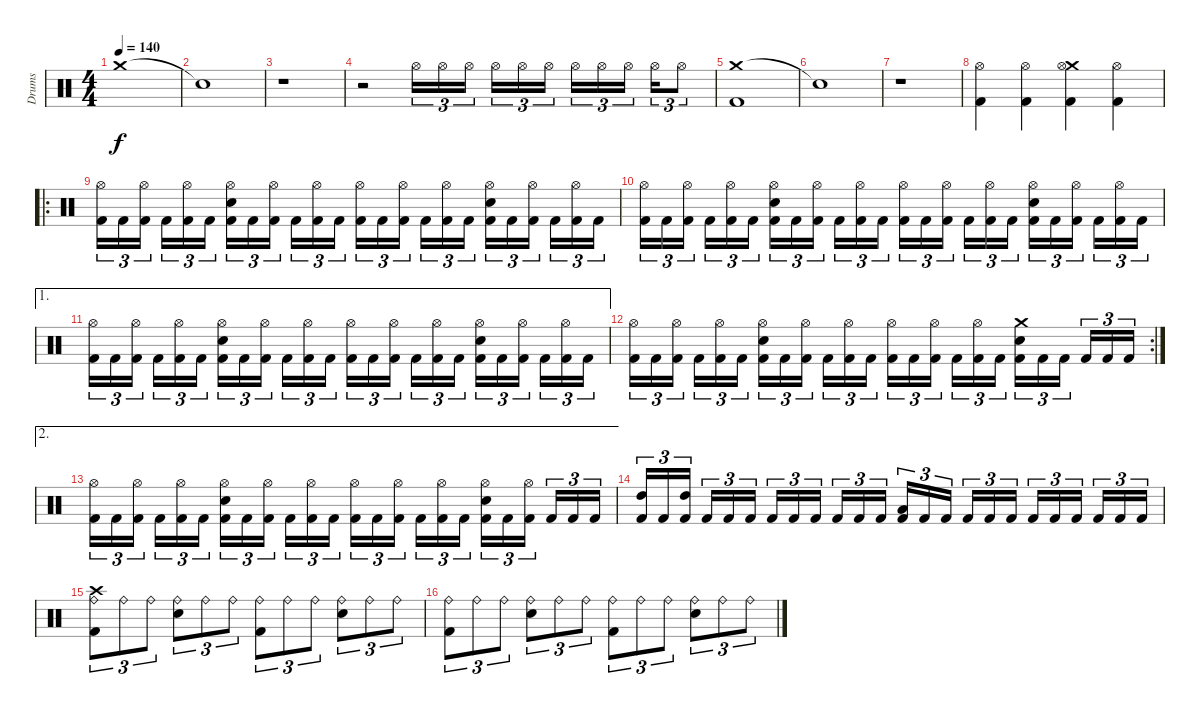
\track ("Drums" "Drums") {instrument percussion}
\staff {score}
\articulation defaults
\ts (4 4)
\tempo 140
\clef neutral
\ks c "Crash medium (hit)".1{dy f}
|
"Snare (hit)"{t}.1 |
r.1 |
r.2 "Hi-Hat (open)".16{tu (3 2)} "Hi-Hat (open)".16{tu (3 2)} "Hi-Hat (open)".16{tu (3 2)} "Hi-Hat (open)".16{tu (3 2)} "Hi-Hat (open)".16{tu (3 2)} "Hi-Hat (open)".16{tu (3 2)} "Hi-Hat (open)".16{tu (3 2)} "Hi-Hat (open)".16{tu (3 2)} "Hi-Hat (open)".16{tu (3 2)} "Hi-Hat (open)".16{tu (3 2)} "Hi-Hat (open)".8{tu (3 2)} |
("Crash medium (hit)" "Kick (hit) 2").1 |
"Snare (hit)"{t}.1 |
r.1 |
("Hi-Hat (open)" "Kick (hit) 2").4 ("Hi-Hat (open)" "Kick (hit) 2").4 ("Crash medium (hit)" "Hi-Hat (open)" "Kick (hit) 2").4 ("Hi-Hat (open)" "Kick (hit) 2").4 |
\ro
("Hi-Hat (open)" "Kick (hit) 2").16{tu (3 2)} "Kick (hit) 2".16{tu (3 2)} ("Hi-Hat (open)" "Kick (hit) 2").16{tu (3 2)} "Kick (hit) 2".16{tu (3 2)} ("Hi-Hat (open)" "Kick (hit) 2").16{tu (3 2)} "Kick (hit) 2".16{tu (3 2)} ("Hi-Hat (open)" "Electric Snare (hit)" "Kick (hit) 2").16{tu (3 2)} "Kick (hit) 2".16{tu (3 2)} ("Hi-Hat (open)" "Kick (hit) 2").16{tu (3 2)} "Kick (hit) 2".16{tu (3 2)} ("Hi-Hat (open)" "Kick (hit) 2").16{tu (3 2)} "Kick (hit) 2".16{tu (3 2)} ("Hi-Hat (open)" "Kick (hit) 2").16{tu (3 2)} "Kick (hit) 2".16{tu (3 2)} ("Hi-Hat (open)" "Kick (hit) 2").16{tu (3 2)} "Kick (hit) 2".16{tu (3 2)} ("Hi-Hat (open)" "Kick (hit) 2").16{tu (3 2)} "Kick (hit) 2".16{tu (3 2)} ("Hi-Hat (open)" "Electric Snare (hit)" "Kick (hit) 2").16{tu (3 2)} "Kick (hit) 2".16{tu (3 2)} ("Hi-Hat (open)" "Kick (hit) 2").16{tu (3 2)} "Kick (hit) 2".16{tu (3 2)} ("Hi-Hat (open)" "Kick (hit) 2").16{tu (3 2)} "Kick (hit) 2".16{tu (3 2)} |
("Hi-Hat (open)" "Kick (hit) 2").16{tu (3 2)} "Kick (hit) 2".16{tu (3 2)} ("Hi-Hat (open)" "Kick (hit) 2").16{tu (3 2)} "Kick (hit) 2".16{tu (3 2)} ("Hi-Hat (open)" "Kick (hit) 2").16{tu (3 2)} "Kick (hit) 2".16{tu (3 2)} ("Hi-Hat (open)" "Electric Snare (hit)" "Kick (hit) 2").16{tu (3 2)} "Kick (hit) 2".16{tu (3 2)} ("Hi-Hat (open)" "Kick (hit) 2").16{tu (3 2)} "Kick (hit) 2".16{tu (3 2)} ("Hi-Hat (open)" "Kick (hit) 2").16{tu (3 2)} "Kick (hit) 2".16{tu (3 2)} ("Hi-Hat (open)" "Kick (hit) 2").16{tu (3 2)} "Kick (hit) 2".16{tu (3 2)} ("Hi-Hat (open)" "Kick (hit) 2").16{tu (3 2)} "Kick (hit) 2".16{tu (3 2)} ("Hi-Hat (open)" "Kick (hit) 2").16{tu (3 2)} "Kick (hit) 2".16{tu (3 2)} ("Hi-Hat (open)" "Electric Snare (hit)" "Kick (hit) 2").16{tu (3 2)} "Kick (hit) 2".16{tu (3 2)} ("Hi-Hat (open)" "Kick (hit) 2").16{tu (3 2)} "Kick (hit) 2".16{tu (3 2)} ("Hi-Hat (open)" "Kick (hit) 2").16{tu (3 2)} "Kick (hit) 2".16{tu (3 2)} |
\ae 1
("Hi-Hat (open)" "Kick (hit) 2").16{tu (3 2)} "Kick (hit) 2".16{tu (3 2)} ("Hi-Hat (open)" "Kick (hit) 2").16{tu (3 2)} "Kick (hit) 2".16{tu (3 2)} ("Hi-Hat (open)" "Kick (hit) 2").16{tu (3 2)} "Kick (hit) 2".16{tu (3 2)} ("Hi-Hat (open)" "Electric Snare (hit)" "Kick (hit) 2").16{tu (3 2)} "Kick (hit) 2".16{tu (3 2)} ("Hi-Hat (open)" "Kick (hit) 2").16{tu (3 2)} "Kick (hit) 2".16{tu (3 2)} ("Hi-Hat (open)" "Kick (hit) 2").16{tu (3 2)} "Kick (hit) 2".16{tu (3 2)} ("Hi-Hat (open)" "Kick (hit) 2").16{tu (3 2)} "Kick (hit) 2".16{tu (3 2)} ("Hi-Hat (open)" "Kick (hit) 2").16{tu (3 2)} "Kick (hit) 2".16{tu (3 2)} ("Hi-Hat (open)" "Kick (hit) 2").16{tu (3 2)} "Kick (hit) 2".16{tu (3 2)} ("Hi-Hat (open)" "Electric Snare (hit)" "Kick (hit) 2").16{tu (3 2)} "Kick (hit) 2".16{tu (3 2)} ("Hi-Hat (open)" "Kick (hit) 2").16{tu (3 2)} "Kick (hit) 2".16{tu (3 2)} ("Hi-Hat (open)" "Kick (hit) 2").16{tu (3 2)} "Kick (hit) 2".16{tu (3 2)} |
\rc 2
("Hi-Hat (open)" "Kick (hit) 2").16{tu (3 2)} "Kick (hit) 2".16{tu (3 2)} ("Hi-Hat (open)" "Kick (hit) 2").16{tu (3 2)} "Kick (hit) 2".16{tu (3 2)} ("Hi-Hat (open)" "Kick (hit) 2").16{tu (3 2)} "Kick (hit) 2".16{tu (3 2)} ("Hi-Hat (open)" "Electric Snare (hit)" "Kick (hit) 2").16{tu (3 2)} "Kick (hit) 2".16{tu (3 2)} ("Hi-Hat (open)" "Kick (hit) 2").16{tu (3 2)} "Kick (hit) 2".16{tu (3 2)} ("Hi-Hat (open)" "Kick (hit) 2").16{tu (3 2)} "Kick (hit) 2".16{tu (3 2)} ("Hi-Hat (open)" "Kick (hit) 2").16{tu (3 2)} "Kick (hit) 2".16{tu (3 2)} ("Hi-Hat (open)" "Kick (hit) 2").16{tu (3 2)} "Kick (hit) 2".16{tu (3 2)} ("Hi-Hat (open)" "Kick (hit) 2").16{tu (3 2)} "Kick (hit) 2".16{tu (3 2)} ("Crash medium (hit)" "Electric Snare (hit)" "Kick (hit) 2").16{tu (3 2)} "Kick (hit) 2".16{tu (3 2)} "Kick (hit) 2".16{tu (3 2)} "Kick (hit) 2".16{tu (3 2)} "Kick (hit) 2".16{tu (3 2)} "Kick (hit) 2".16{tu (3 2)} |
\ae 2
("Hi-Hat (open)" "Kick (hit) 2").16{tu (3 2)} "Kick (hit) 2".16{tu (3 2)} ("Hi-Hat (open)" "Kick (hit) 2").16{tu (3 2)} "Kick (hit) 2".16{tu (3 2)} ("Hi-Hat (open)" "Kick (hit) 2").16{tu (3 2)} "Kick (hit) 2".16{tu (3 2)} ("Hi-Hat (open)" "Electric Snare (hit)" "Kick (hit) 2").16{tu (3 2)} "Kick (hit) 2".16{tu (3 2)} ("Hi-Hat (open)" "Kick (hit) 2").16{tu (3 2)} "Kick (hit) 2".16{tu (3 2)} ("Hi-Hat (open)" "Kick (hit) 2").16{tu (3 2)} "Kick (hit) 2".16{tu (3 2)} ("Hi-Hat (open)" "Kick (hit) 2").16{tu (3 2)} "Kick (hit) 2".16{tu (3 2)} ("Hi-Hat (open)" "Kick (hit) 2").16{tu (3 2)} "Kick (hit) 2".16{tu (3 2)} ("Hi-Hat (open)" "Kick (hit) 2").16{tu (3 2)} "Kick (hit) 2".16{tu (3 2)} ("Hi-Hat (open)" "Electric Snare (hit)" "Kick (hit) 2").16{tu (3 2)} "Kick (hit) 2".16{tu (3 2)} ("Hi-Hat (open)" "Kick (hit) 2").16{tu (3 2)} "Kick (hit) 2".16{tu (3 2)} "Kick (hit) 2".16{tu (3 2)} "Kick (hit) 2".16{tu (3 2)} |
("High Tom (hit)" "Kick (hit) 2").16{tu (3 2)} "Kick (hit) 2".16{tu (3 2)} ("High Tom (hit)" "Kick (hit) 2").16{tu (3 2)} "Kick (hit) 2".16{tu (3 2)} "Kick (hit) 2".16{tu (3 2)} "Kick (hit) 2".16{tu (3 2)} "Kick (hit) 2".16{tu (3 2)} "Kick (hit) 2".16{tu (3 2)} "Kick (hit) 2".16{tu (3 2)} "Kick (hit) 2".16{tu (3 2)} "Kick (hit) 2".16{tu (3 2)} "Kick (hit) 2".16{tu (3 2)} ("Low Tom (hit)" "Kick (hit) 2").16{tu (3 2)} "Kick (hit) 2".16{tu (3 2)} "Kick (hit) 2".16{tu (3 2)} "Kick (hit) 2".16{tu (3 2)} "Kick (hit) 2".16{tu (3 2)} "Kick (hit) 2".16{tu (3 2)} "Kick (hit) 2".16{tu (3 2)} "Kick (hit) 2".16{tu (3 2)} "Kick (hit) 2".16{tu (3 2)} "Kick (hit) 2".16{tu (3 2)} "Kick (hit) 2".16{tu (3 2)} "Kick (hit) 2".16{tu (3 2)} |
("Crash high (hit)" "Ride (bell)" "Kick (hit) 2").8{tu (3 2)} "Ride (bell)".8{tu (3 2)} "Ride (bell)".8{tu (3 2)} ("Ride (bell)" "Electric Snare (hit)").8{tu (3 2)} "Ride (bell)".8{tu (3 2)} "Ride (bell)".8{tu (3 2)} ("Ride (bell)" "Kick (hit) 2").8{tu (3 2)} "Ride (bell)".8{tu (3 2)} "Ride (bell)".8{tu (3 2)} ("Ride (bell)" "Electric Snare (hit)").8{tu (3 2)} "Ride (bell)".8{tu (3 2)} "Ride (bell)".8{tu (3 2)} |
("Ride (bell)" "Kick (hit) 2").8{tu (3 2)} "Ride (bell)".8{tu (3 2)} "Ride (bell)".8{tu (3 2)} ("Ride (bell)" "Electric Snare (hit)").8{tu (3 2)} "Ride (bell)".8{tu (3 2)} "Ride (bell)".8{tu (3 2)} ("Ride (bell)" "Kick (hit) 2").8{tu (3 2)} "Ride (bell)".8{tu (3 2)} "Ride (bell)".8{tu (3 2)} ("Ride (bell)" "Electric Snare (hit)").8{tu (3 2)} "Ride (bell)".8{tu (3 2)} "Ride (bell)".8{tu (3 2)}
